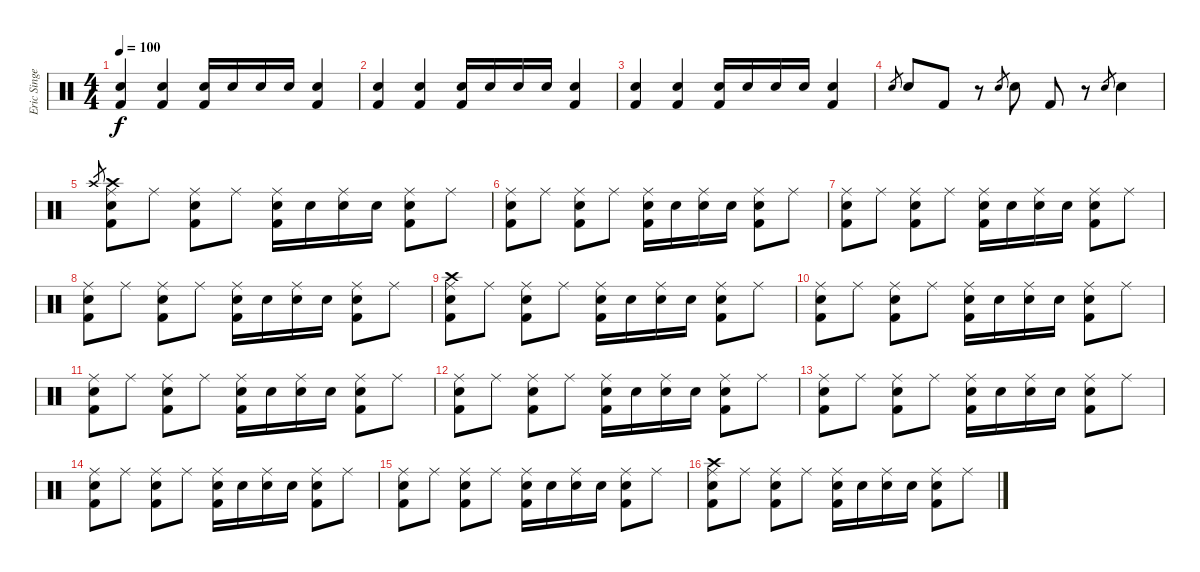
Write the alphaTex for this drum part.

\track ("Eric Singer" "Eric Singe") {instrument percussion}
\staff {score}
\articulation defaults
\ts (4 4)
\tempo 100
\clef neutral
\ks c
("Snare (hit) 2" "Kick (hit) 2").4{dy f} ("Snare (hit) 2" "Kick (hit) 2").4 ("Snare (hit) 2" "Kick (hit) 2").16 "Snare (hit) 2".16 "Snare (hit) 2".16 "Snare (hit) 2".16 ("Snare (hit) 2" "Kick (hit) 2").4 |
("Snare (hit) 2" "Kick (hit) 2").4 ("Snare (hit) 2" "Kick (hit) 2").4 ("Snare (hit) 2" "Kick (hit) 2").16 "Snare (hit) 2".16 "Snare (hit) 2".16 "Snare (hit) 2".16 ("Snare (hit) 2" "Kick (hit) 2").4 |
("Snare (hit) 2" "Kick (hit) 2").4 ("Snare (hit) 2" "Kick (hit) 2").4 ("Snare (hit) 2" "Kick (hit) 2").16 "Snare (hit) 2".16 "Snare (hit) 2".16 "Snare (hit) 2".16 ("Snare (hit) 2" "Kick (hit) 2").4 |
"Electric Snare (hit)".8{gr} "Electric Snare (hit)".8 "Kick (hit) 2".8 r.8 "Electric Snare (hit)".8{gr} "Electric Snare (hit)".8 "Kick (hit) 2".8 r.8 "Electric Snare (hit)".8{gr} "Electric Snare (hit)".4 |
"Crash high (hit)".8{gr} ("Ride (middle)" "Crash high (hit)" "Snare (hit) 2" "Kick (hit) 2").8 "Ride (middle)".8 ("Ride (middle)" "Snare (hit) 2" "Kick (hit) 2").8 "Ride (middle)".8 ("Ride (middle)" "Snare (hit) 2" "Kick (hit) 2").16 "Snare (hit) 2".16 ("Ride (middle)" "Snare (hit) 2").16 "Snare (hit) 2".16 ("Ride (middle)" "Snare (hit) 2" "Kick (hit) 2").8 "Ride (middle)".8 |
("Ride (middle)" "Snare (hit) 2" "Kick (hit) 2").8 "Ride (middle)".8 ("Ride (middle)" "Snare (hit) 2" "Kick (hit) 2").8 "Ride (middle)".8 ("Ride (middle)" "Snare (hit) 2" "Kick (hit) 2").16 "Snare (hit) 2".16 ("Ride (middle)" "Snare (hit) 2").16 "Snare (hit) 2".16 ("Ride (middle)" "Snare (hit) 2" "Kick (hit) 2").8 "Ride (middle)".8 |
("Ride (middle)" "Snare (hit) 2" "Kick (hit) 2").8 "Ride (middle)".8 ("Ride (middle)" "Snare (hit) 2" "Kick (hit) 2").8 "Ride (middle)".8 ("Ride (middle)" "Snare (hit) 2" "Kick (hit) 2").16 "Snare (hit) 2".16 ("Ride (middle)" "Snare (hit) 2").16 "Snare (hit) 2".16 ("Ride (middle)" "Snare (hit) 2" "Kick (hit) 2").8 "Ride (middle)".8 |
("Ride (middle)" "Snare (hit) 2" "Kick (hit) 2").8 "Ride (middle)".8 ("Ride (middle)" "Snare (hit) 2" "Kick (hit) 2").8 "Ride (middle)".8 ("Ride (middle)" "Snare (hit) 2" "Kick (hit) 2").16 "Snare (hit) 2".16 ("Ride (middle)" "Snare (hit) 2").16 "Snare (hit) 2".16 ("Ride (middle)" "Snare (hit) 2" "Kick (hit) 2").8 "Ride (middle)".8 |
("Ride (middle)" "Crash high (hit)" "Snare (hit) 2" "Kick (hit) 2").8 "Ride (middle)".8 ("Ride (middle)" "Snare (hit) 2" "Kick (hit) 2").8 "Ride (middle)".8 ("Ride (middle)" "Snare (hit) 2" "Kick (hit) 2").16 "Snare (hit) 2".16 ("Ride (middle)" "Snare (hit) 2").16 "Snare (hit) 2".16 ("Ride (middle)" "Snare (hit) 2" "Kick (hit) 2").8 "Ride (middle)".8 |
("Ride (middle)" "Snare (hit) 2" "Kick (hit) 2").8 "Ride (middle)".8 ("Ride (middle)" "Snare (hit) 2" "Kick (hit) 2").8 "Ride (middle)".8 ("Ride (middle)" "Snare (hit) 2" "Kick (hit) 2").16 "Snare (hit) 2".16 ("Ride (middle)" "Snare (hit) 2").16 "Snare (hit) 2".16 ("Ride (middle)" "Snare (hit) 2" "Kick (hit) 2").8 "Ride (middle)".8 |
("Ride (middle)" "Snare (hit) 2" "Kick (hit) 2").8 "Ride (middle)".8 ("Ride (middle)" "Snare (hit) 2" "Kick (hit) 2").8 "Ride (middle)".8 ("Ride (middle)" "Snare (hit) 2" "Kick (hit) 2").16 "Snare (hit) 2".16 ("Ride (middle)" "Snare (hit) 2").16 "Snare (hit) 2".16 ("Ride (middle)" "Snare (hit) 2" "Kick (hit) 2").8 "Ride (middle)".8 |
("Ride (middle)" "Snare (hit) 2" "Kick (hit) 2").8 "Ride (middle)".8 ("Ride (middle)" "Snare (hit) 2" "Kick (hit) 2").8 "Ride (middle)".8 ("Ride (middle)" "Snare (hit) 2" "Kick (hit) 2").16 "Snare (hit) 2".16 ("Ride (middle)" "Snare (hit) 2").16 "Snare (hit) 2".16 ("Ride (middle)" "Snare (hit) 2" "Kick (hit) 2").8 "Ride (middle)".8 |
("Ride (middle)" "Snare (hit) 2" "Kick (hit) 2").8 "Ride (middle)".8 ("Ride (middle)" "Snare (hit) 2" "Kick (hit) 2").8 "Ride (middle)".8 ("Ride (middle)" "Snare (hit) 2" "Kick (hit) 2").16 "Snare (hit) 2".16 ("Ride (middle)" "Snare (hit) 2").16 "Snare (hit) 2".16 ("Ride (middle)" "Snare (hit) 2" "Kick (hit) 2").8 "Ride (middle)".8 |
("Ride (middle)" "Snare (hit) 2" "Kick (hit) 2").8 "Ride (middle)".8 ("Ride (middle)" "Snare (hit) 2" "Kick (hit) 2").8 "Ride (middle)".8 ("Ride (middle)" "Snare (hit) 2" "Kick (hit) 2").16 "Snare (hit) 2".16 ("Ride (middle)" "Snare (hit) 2").16 "Snare (hit) 2".16 ("Ride (middle)" "Snare (hit) 2" "Kick (hit) 2").8 "Ride (middle)".8 |
("Ride (middle)" "Snare (hit) 2" "Kick (hit) 2").8 "Ride (middle)".8 ("Ride (middle)" "Snare (hit) 2" "Kick (hit) 2").8 "Ride (middle)".8 ("Ride (middle)" "Snare (hit) 2" "Kick (hit) 2").16 "Snare (hit) 2".16 ("Ride (middle)" "Snare (hit) 2").16 "Snare (hit) 2".16 ("Ride (middle)" "Snare (hit) 2" "Kick (hit) 2").8 "Ride (middle)".8 |
("Ride (middle)" "Crash high (hit)" "Snare (hit) 2" "Kick (hit) 2").8 "Ride (middle)".8 ("Ride (middle)" "Snare (hit) 2" "Kick (hit) 2").8 "Ride (middle)".8 ("Ride (middle)" "Snare (hit) 2" "Kick (hit) 2").16 "Snare (hit) 2".16 ("Ride (middle)" "Snare (hit) 2").16 "Snare (hit) 2".16 ("Ride (middle)" "Snare (hit) 2" "Kick (hit) 2").8 "Ride (middle)".8
